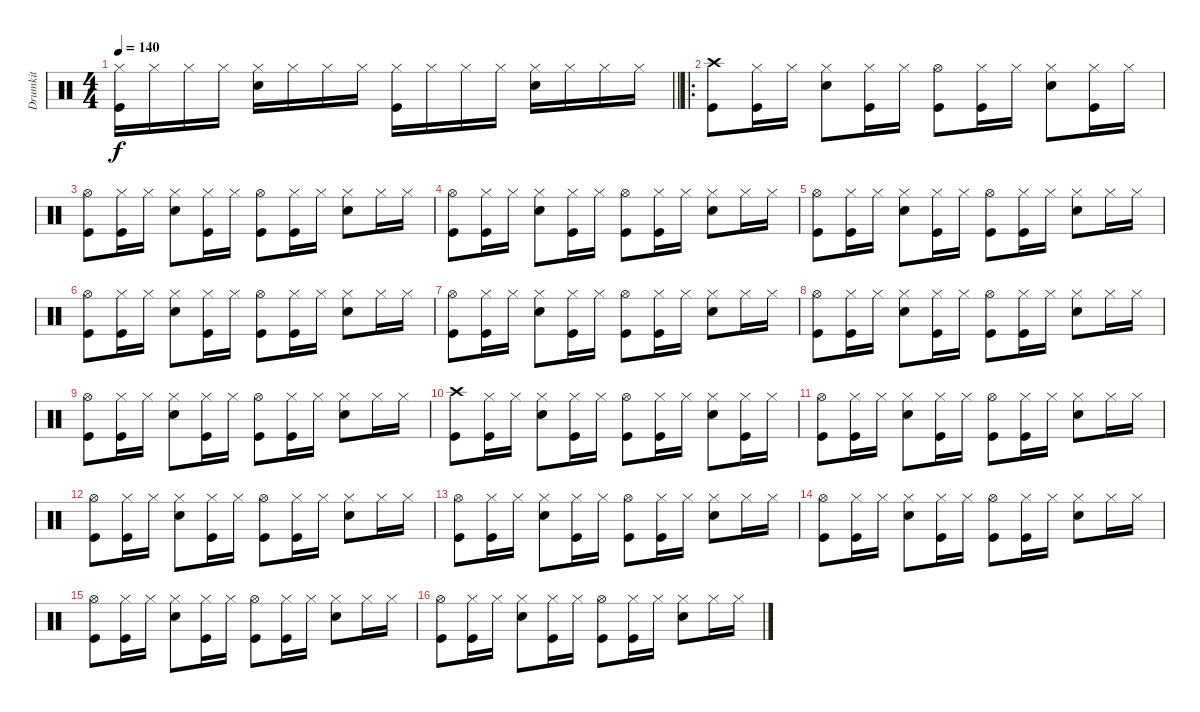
\track ("Drumkit" "Drumkit") {instrument percussion}
\staff {score}
\articulation defaults
\ts (4 4)
\tempo 140
\clef neutral
\barLineRight lightlight
\ks c
("Hi-Hat (closed)" "Kick (hit)").16{dy f} "Hi-Hat (closed)".16 "Hi-Hat (closed)".16 "Hi-Hat (closed)".16 ("Hi-Hat (closed)" "Snare (hit) 2").16 "Hi-Hat (closed)".16 "Hi-Hat (closed)".16 "Hi-Hat (closed)".16 ("Hi-Hat (closed)" "Kick (hit)").16 "Hi-Hat (closed)".16 "Hi-Hat (closed)".16 "Hi-Hat (closed)".16 ("Hi-Hat (closed)" "Snare (hit) 2").16 "Hi-Hat (closed)".16 "Hi-Hat (closed)".16 "Hi-Hat (closed)".16 |
\ro
("Crash high (hit)" "Kick (hit)").8 ("Hi-Hat (closed)" "Kick (hit)").16 "Hi-Hat (closed)".16 ("Snare (hit) 2" "Hi-Hat (closed)").8 ("Hi-Hat (closed)" "Kick (hit)").16 "Hi-Hat (closed)".16 ("Hi-Hat (open)" "Kick (hit)").8 ("Hi-Hat (closed)" "Kick (hit)").16 "Hi-Hat (closed)".16 ("Hi-Hat (closed)" "Snare (hit) 2").8 ("Hi-Hat (closed)" "Kick (hit)").16 "Hi-Hat (closed)".16 |
("Kick (hit)" "Hi-Hat (open)").8 ("Hi-Hat (closed)" "Kick (hit)").16 "Hi-Hat (closed)".16 ("Hi-Hat (closed)" "Snare (hit) 2").8 ("Hi-Hat (closed)" "Kick (hit)").16 "Hi-Hat (closed)".16 ("Hi-Hat (open)" "Kick (hit)").8 ("Hi-Hat (closed)" "Kick (hit)").16 "Hi-Hat (closed)".16 ("Hi-Hat (closed)" "Snare (hit) 2").8 "Hi-Hat (closed)".16 "Hi-Hat (closed)".16 |
("Kick (hit)" "Hi-Hat (open)").8 ("Hi-Hat (closed)" "Kick (hit)").16 "Hi-Hat (closed)".16 ("Hi-Hat (closed)" "Snare (hit) 2").8 ("Hi-Hat (closed)" "Kick (hit)").16 "Hi-Hat (closed)".16 ("Hi-Hat (open)" "Kick (hit)").8 ("Hi-Hat (closed)" "Kick (hit)").16 "Hi-Hat (closed)".16 ("Hi-Hat (closed)" "Snare (hit) 2").8 "Hi-Hat (closed)".16 "Hi-Hat (closed)".16 |
("Kick (hit)" "Hi-Hat (open)").8 ("Hi-Hat (closed)" "Kick (hit)").16 "Hi-Hat (closed)".16 ("Hi-Hat (closed)" "Snare (hit) 2").8 ("Hi-Hat (closed)" "Kick (hit)").16 "Hi-Hat (closed)".16 ("Hi-Hat (open)" "Kick (hit)").8 ("Hi-Hat (closed)" "Kick (hit)").16 "Hi-Hat (closed)".16 ("Hi-Hat (closed)" "Snare (hit) 2").8 "Hi-Hat (closed)".16 "Hi-Hat (closed)".16 |
("Kick (hit)" "Hi-Hat (open)").8 ("Hi-Hat (closed)" "Kick (hit)").16 "Hi-Hat (closed)".16 ("Hi-Hat (closed)" "Snare (hit) 2").8 ("Hi-Hat (closed)" "Kick (hit)").16 "Hi-Hat (closed)".16 ("Hi-Hat (open)" "Kick (hit)").8 ("Hi-Hat (closed)" "Kick (hit)").16 "Hi-Hat (closed)".16 ("Hi-Hat (closed)" "Snare (hit) 2").8 "Hi-Hat (closed)".16 "Hi-Hat (closed)".16 |
("Kick (hit)" "Hi-Hat (open)").8 ("Hi-Hat (closed)" "Kick (hit)").16 "Hi-Hat (closed)".16 ("Hi-Hat (closed)" "Snare (hit) 2").8 ("Hi-Hat (closed)" "Kick (hit)").16 "Hi-Hat (closed)".16 ("Hi-Hat (open)" "Kick (hit)").8 ("Hi-Hat (closed)" "Kick (hit)").16 "Hi-Hat (closed)".16 ("Hi-Hat (closed)" "Snare (hit) 2").8 "Hi-Hat (closed)".16 "Hi-Hat (closed)".16 |
("Kick (hit)" "Hi-Hat (open)").8 ("Hi-Hat (closed)" "Kick (hit)").16 "Hi-Hat (closed)".16 ("Hi-Hat (closed)" "Snare (hit) 2").8 ("Hi-Hat (closed)" "Kick (hit)").16 "Hi-Hat (closed)".16 ("Hi-Hat (open)" "Kick (hit)").8 ("Hi-Hat (closed)" "Kick (hit)").16 "Hi-Hat (closed)".16 ("Hi-Hat (closed)" "Snare (hit) 2").8 "Hi-Hat (closed)".16 "Hi-Hat (closed)".16 |
("Kick (hit)" "Hi-Hat (open)").8 ("Hi-Hat (closed)" "Kick (hit)").16 "Hi-Hat (closed)".16 ("Hi-Hat (closed)" "Snare (hit) 2").8 ("Hi-Hat (closed)" "Kick (hit)").16 "Hi-Hat (closed)".16 ("Hi-Hat (open)" "Kick (hit)").8 ("Hi-Hat (closed)" "Kick (hit)").16 "Hi-Hat (closed)".16 ("Hi-Hat (closed)" "Snare (hit) 2").8 "Hi-Hat (closed)".16 "Hi-Hat (closed)".16 |
("Crash high (hit)" "Kick (hit)").8 ("Hi-Hat (closed)" "Kick (hit)").16 "Hi-Hat (closed)".16 ("Snare (hit) 2" "Hi-Hat (closed)").8 ("Hi-Hat (closed)" "Kick (hit)").16 "Hi-Hat (closed)".16 ("Hi-Hat (open)" "Kick (hit)").8 ("Hi-Hat (closed)" "Kick (hit)").16 "Hi-Hat (closed)".16 ("Hi-Hat (closed)" "Snare (hit) 2").8 ("Hi-Hat (closed)" "Kick (hit)").16 "Hi-Hat (closed)".16 |
("Kick (hit)" "Hi-Hat (open)").8 ("Hi-Hat (closed)" "Kick (hit)").16 "Hi-Hat (closed)".16 ("Hi-Hat (closed)" "Snare (hit) 2").8 ("Hi-Hat (closed)" "Kick (hit)").16 "Hi-Hat (closed)".16 ("Hi-Hat (open)" "Kick (hit)").8 ("Hi-Hat (closed)" "Kick (hit)").16 "Hi-Hat (closed)".16 ("Hi-Hat (closed)" "Snare (hit) 2").8 "Hi-Hat (closed)".16 "Hi-Hat (closed)".16 |
("Kick (hit)" "Hi-Hat (open)").8 ("Hi-Hat (closed)" "Kick (hit)").16 "Hi-Hat (closed)".16 ("Hi-Hat (closed)" "Snare (hit) 2").8 ("Hi-Hat (closed)" "Kick (hit)").16 "Hi-Hat (closed)".16 ("Hi-Hat (open)" "Kick (hit)").8 ("Hi-Hat (closed)" "Kick (hit)").16 "Hi-Hat (closed)".16 ("Hi-Hat (closed)" "Snare (hit) 2").8 "Hi-Hat (closed)".16 "Hi-Hat (closed)".16 |
("Kick (hit)" "Hi-Hat (open)").8 ("Hi-Hat (closed)" "Kick (hit)").16 "Hi-Hat (closed)".16 ("Hi-Hat (closed)" "Snare (hit) 2").8 ("Hi-Hat (closed)" "Kick (hit)").16 "Hi-Hat (closed)".16 ("Hi-Hat (open)" "Kick (hit)").8 ("Hi-Hat (closed)" "Kick (hit)").16 "Hi-Hat (closed)".16 ("Hi-Hat (closed)" "Snare (hit) 2").8 "Hi-Hat (closed)".16 "Hi-Hat (closed)".16 |
("Kick (hit)" "Hi-Hat (open)").8 ("Hi-Hat (closed)" "Kick (hit)").16 "Hi-Hat (closed)".16 ("Hi-Hat (closed)" "Snare (hit) 2").8 ("Hi-Hat (closed)" "Kick (hit)").16 "Hi-Hat (closed)".16 ("Hi-Hat (open)" "Kick (hit)").8 ("Hi-Hat (closed)" "Kick (hit)").16 "Hi-Hat (closed)".16 ("Hi-Hat (closed)" "Snare (hit) 2").8 "Hi-Hat (closed)".16 "Hi-Hat (closed)".16 |
("Kick (hit)" "Hi-Hat (open)").8 ("Hi-Hat (closed)" "Kick (hit)").16 "Hi-Hat (closed)".16 ("Hi-Hat (closed)" "Snare (hit) 2").8 ("Hi-Hat (closed)" "Kick (hit)").16 "Hi-Hat (closed)".16 ("Hi-Hat (open)" "Kick (hit)").8 ("Hi-Hat (closed)" "Kick (hit)").16 "Hi-Hat (closed)".16 ("Hi-Hat (closed)" "Snare (hit) 2").8 "Hi-Hat (closed)".16 "Hi-Hat (closed)".16 |
("Kick (hit)" "Hi-Hat (open)").8 ("Hi-Hat (closed)" "Kick (hit)").16 "Hi-Hat (closed)".16 ("Hi-Hat (closed)" "Snare (hit) 2").8 ("Hi-Hat (closed)" "Kick (hit)").16 "Hi-Hat (closed)".16 ("Hi-Hat (open)" "Kick (hit)").8 ("Hi-Hat (closed)" "Kick (hit)").16 "Hi-Hat (closed)".16 ("Hi-Hat (closed)" "Snare (hit) 2").8 "Hi-Hat (closed)".16 "Hi-Hat (closed)".16
